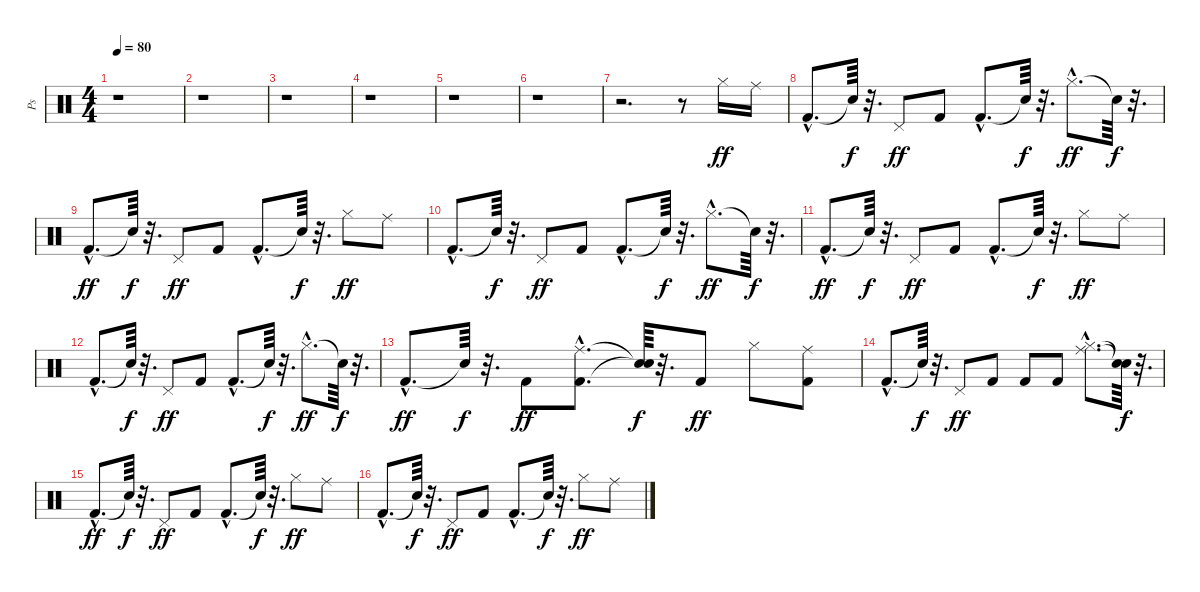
\track ("Ps" "Ps") {instrument percussion}
\staff {score}
\articulation defaults
\ts (4 4)
\tempo 80
\clef neutral
\ks c
r.1{dy ff} |
r.1 |
r.1 |
r.1 |
r.1 |
r.1 |
r.2{d} r.8 "Hi-Hat (closed)".16 "Ride (middle)".16 |
"Kick (hit) 2"{hac}.8{d} "Snare (hit)"{t}.64{dy f} r.32{d} "Pedal Hi-Hat (hit)".8{dy ff} "Kick (hit) 2".8 "Kick (hit) 2"{hac}.8{d} "Snare (hit)"{t}.64{dy f} r.32{d} "Hi-Hat (closed)"{hac}.8{d dy ff} "Snare (hit)"{t}.64{dy f} r.32{d} |
"Kick (hit) 2"{hac}.8{d dy ff} "Snare (hit)"{t}.64{dy f} r.32{d} "Pedal Hi-Hat (hit)".8{dy ff} "Kick (hit) 2".8 "Kick (hit) 2"{hac}.8{d} "Snare (hit)"{t}.64{dy f} r.32{d} "Hi-Hat (closed)".8{dy ff} "Ride (middle)".8 |
"Kick (hit) 2"{hac}.8{d} "Snare (hit)"{t}.64{dy f} r.32{d} "Pedal Hi-Hat (hit)".8{dy ff} "Kick (hit) 2".8 "Kick (hit) 2"{hac}.8{d} "Snare (hit)"{t}.64{dy f} r.32{d} "Hi-Hat (closed)"{hac}.8{d dy ff} "Snare (hit)"{t}.64{dy f} r.32{d} |
"Kick (hit) 2"{hac}.8{d dy ff} "Snare (hit)"{t}.64{dy f} r.32{d} "Pedal Hi-Hat (hit)".8{dy ff} "Kick (hit) 2".8 "Kick (hit) 2"{hac}.8{d} "Snare (hit)"{t}.64{dy f} r.32{d} "Hi-Hat (closed)".8{dy ff} "Ride (middle)".8 |
"Kick (hit) 2"{hac}.8{d} "Snare (hit)"{t}.64{dy f} r.32{d} "Pedal Hi-Hat (hit)".8{dy ff} "Kick (hit) 2".8 "Kick (hit) 2"{hac}.8{d} "Snare (hit)"{t}.64{dy f} r.32{d} "Hi-Hat (closed)"{hac}.8{d dy ff} "Snare (hit)"{t}.64{dy f} r.32{d} |
"Kick (hit) 2"{hac}.8{d dy ff} "Snare (hit)"{t}.64{dy f} r.32{d} "Kick (hit) 2".8{dy ff} ("Ride (middle)"{hac} "Kick (hit) 2"{hac}).8{d} ("Snare (hit)"{t} "Snare (hit)"{t}).64{dy f} r.32{d} "Kick (hit) 2".8{dy ff} "Hi-Hat (closed)".8 ("Ride (middle)" "Kick (hit) 2").8 |
"Kick (hit) 2"{hac}.8{d} "Snare (hit)"{t}.64{dy f} r.32{d} "Pedal Hi-Hat (hit)".8{dy ff} "Kick (hit) 2".8 "Kick (hit) 2".8 "Kick (hit) 2".8 ("Ride (middle)"{hac} "Hi-Hat (closed)"{hac}).8{d} ("Snare (hit)"{t} "Snare (hit)"{t}).64{dy f} r.32{d} |
"Kick (hit) 2"{hac}.8{d dy ff} "Snare (hit)"{t}.64{dy f} r.32{d} "Pedal Hi-Hat (hit)".8{dy ff} "Kick (hit) 2".8 "Kick (hit) 2"{hac}.8{d} "Snare (hit)"{t}.64{dy f} r.32{d} "Hi-Hat (closed)".8{dy ff} "Ride (middle)".8 |
"Kick (hit) 2"{hac}.8{d} "Snare (hit)"{t}.64{dy f} r.32{d} "Pedal Hi-Hat (hit)".8{dy ff} "Kick (hit) 2".8 "Kick (hit) 2"{hac}.8{d} "Snare (hit)"{t}.64{dy f} r.32{d} "Hi-Hat (closed)".8{dy ff} "Ride (middle)".8
